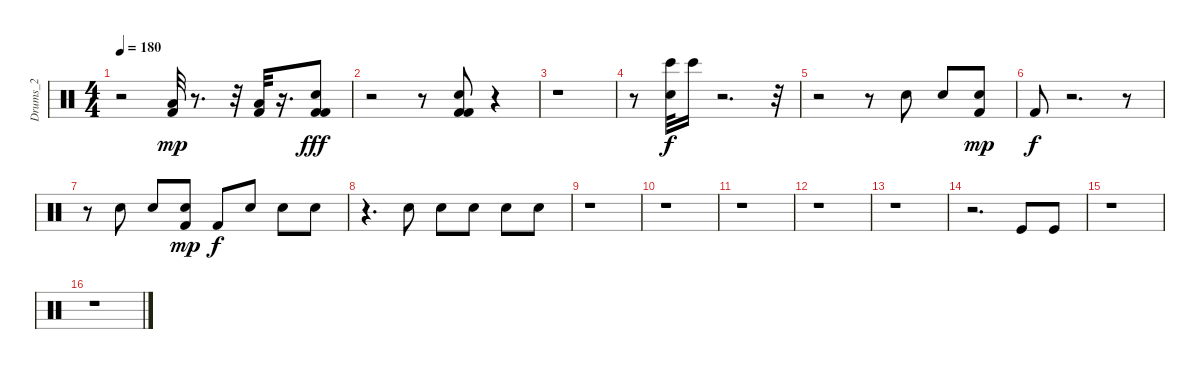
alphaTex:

\track ("Drums_2" "Drums_2") {instrument percussion}
\staff {score}
\articulation defaults
\ts (4 4)
\tempo 180
\clef neutral
\ks c
r.2{dy f} ("Kick (hit) 2" "Low Floor Tom (hit)").32{dy mp} r.8{d} r.32 ("Kick (hit) 2" "Low Floor Tom (hit)").32 r.16{d} ("Kick (hit) 2" "Kick (hit) 2" "Snare (hit) 2").8{dy fff} |
r.2 r.8 ("Kick (hit) 2" "Kick (hit) 2" "Snare (hit) 2").8 r.4 |
r.1 |
r.8 ("Bongo High (hit)" "Electric Snare (hit)").32{dy f} "Bongo High (hit)".16 r.2{d} r.32 |
r.2 r.8 "Electric Snare (hit)".8 "Snare (hit) 2".8 ("Kick (hit) 2" "Snare (hit) 2").8{dy mp} |
"Kick (hit) 2".8{dy f} r.2{d} r.8 |
r.8 "Electric Snare (hit)".8 "Snare (hit) 2".8 ("Kick (hit) 2" "Snare (hit) 2").8{dy mp} "Kick (hit) 2".8{dy f} "Snare (hit) 2".8 "Snare (hit) 2".8 "Snare (hit) 2".8 |
r.4{d} "Snare (hit) 2".8 "Snare (hit) 2".8 "Snare (hit) 2".8 "Snare (hit) 2".8 "Snare (hit) 2".8 |
r.1 |
r.1 |
r.1 |
r.1 |
r.1 |
r.2{d} "Kick (hit)".8 "Kick (hit)".8 |
r.1 |
r.1
